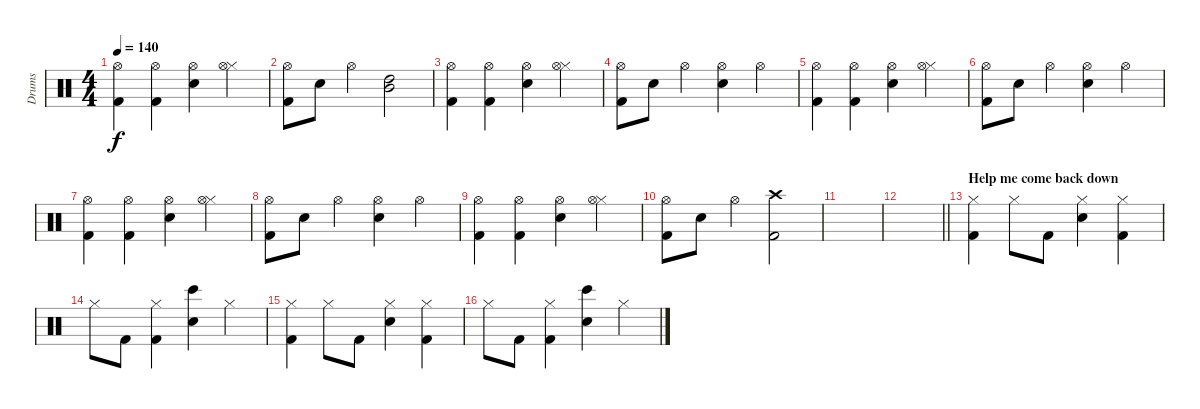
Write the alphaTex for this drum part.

\track ("Drums" "Drums") {instrument percussion}
\staff {score}
\articulation defaults
\ts (4 4)
\tempo 140
\clef neutral
\ks c
("Kick (hit) 2" "Hi-Hat (open)").4{dy f} ("Kick (hit) 2" "Hi-Hat (open)").4 ("Electric Snare (hit)" "Hi-Hat (open)").4 ("Hi-Hat (closed)" "Hi-Hat (open)").4 |
("Kick (hit) 2" "Hi-Hat (open)").8 "Electric Snare (hit)".8 "Hi-Hat (open)".4 ("Mid Tom (hit)" "High Tom (hit)").2 |
("Kick (hit) 2" "Hi-Hat (open)").4 ("Kick (hit) 2" "Hi-Hat (open)").4 ("Electric Snare (hit)" "Hi-Hat (open)").4 ("Hi-Hat (closed)" "Hi-Hat (open)").4 |
("Kick (hit) 2" "Hi-Hat (open)").8 "Electric Snare (hit)".8 "Hi-Hat (open)".4 ("Electric Snare (hit)" "Hi-Hat (open)").4 "Hi-Hat (open)".4 |
("Kick (hit) 2" "Hi-Hat (open)").4 ("Kick (hit) 2" "Hi-Hat (open)").4 ("Electric Snare (hit)" "Hi-Hat (open)").4 ("Hi-Hat (closed)" "Hi-Hat (open)").4 |
("Kick (hit) 2" "Hi-Hat (open)").8 "Electric Snare (hit)".8 "Hi-Hat (open)".4 ("Electric Snare (hit)" "Hi-Hat (open)").4 "Hi-Hat (open)".4 |
("Kick (hit) 2" "Hi-Hat (open)").4 ("Kick (hit) 2" "Hi-Hat (open)").4 ("Electric Snare (hit)" "Hi-Hat (open)").4 ("Hi-Hat (closed)" "Hi-Hat (open)").4 |
("Kick (hit) 2" "Hi-Hat (open)").8 "Electric Snare (hit)".8 "Hi-Hat (open)".4 ("Electric Snare (hit)" "Hi-Hat (open)").4 "Hi-Hat (open)".4 |
("Kick (hit) 2" "Hi-Hat (open)").4 ("Kick (hit) 2" "Hi-Hat (open)").4 ("Electric Snare (hit)" "Hi-Hat (open)").4 ("Hi-Hat (closed)" "Hi-Hat (open)").4 |
("Kick (hit) 2" "Hi-Hat (open)").8 "Electric Snare (hit)".8 "Hi-Hat (open)".4 ("Kick (hit) 2" "Crash high (hit)").2 |
|
\barLineRight lightlight
|
\section ("" "Help me come back down")
("Kick (hit) 2" "Hi-Hat (closed)").4 "Hi-Hat (closed)".8 "Kick (hit) 2".8 ("Hi-Hat (closed)" "Electric Snare (hit)").4 ("Kick (hit) 2" "Hi-Hat (closed)").4 |
"Hi-Hat (closed)".8 "Kick (hit) 2".8 ("Kick (hit) 2" "Hi-Hat (closed)").4 ("Bongo High (hit)" "Electric Snare (hit)").4 "Hi-Hat (closed)".4 |
("Kick (hit) 2" "Hi-Hat (closed)").4 "Hi-Hat (closed)".8 "Kick (hit) 2".8 ("Hi-Hat (closed)" "Electric Snare (hit)").4 ("Kick (hit) 2" "Hi-Hat (closed)").4 |
"Hi-Hat (closed)".8 "Kick (hit) 2".8 ("Kick (hit) 2" "Hi-Hat (closed)").4 ("Bongo High (hit)" "Electric Snare (hit)").4 "Hi-Hat (closed)".4
